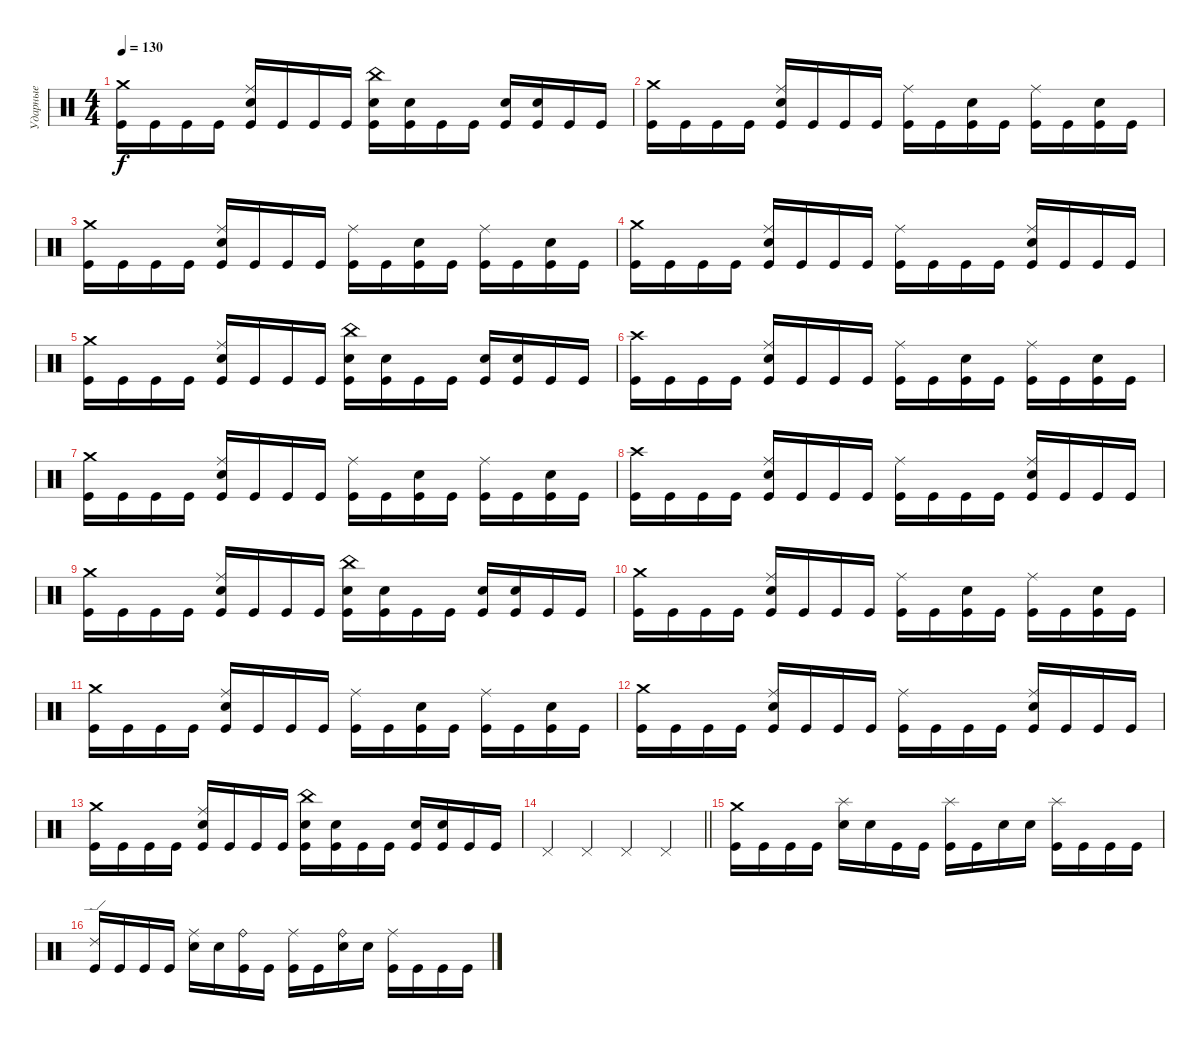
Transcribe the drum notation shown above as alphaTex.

\track ("Ударные" "Ударные") {instrument percussion}
\staff {score}
\articulation defaults
\ts (4 4)
\tempo 130
\clef neutral
\ks c
("Crash medium (hit)" "Kick (hit)").16{dy f} "Kick (hit)".16 "Kick (hit)".16 "Kick (hit)".16 ("Ride (middle)" "Electric Snare (hit)" "Kick (hit)").16 "Kick (hit)".16 "Kick (hit)".16 "Kick (hit)".16 ("China (hit)" "Electric Snare (hit)" "Kick (hit)").16 ("Electric Snare (hit)" "Kick (hit)").16 "Kick (hit)".16 "Kick (hit)".16 ("Electric Snare (hit)" "Kick (hit)").16 ("Electric Snare (hit)" "Kick (hit)").16 "Kick (hit)".16 "Kick (hit)".16 |
("Crash medium (hit)" "Kick (hit)").16 "Kick (hit)".16 "Kick (hit)".16 "Kick (hit)".16 ("Ride (middle)" "Electric Snare (hit)" "Kick (hit)").16 "Kick (hit)".16 "Kick (hit)".16 "Kick (hit)".16 ("Ride (middle)" "Kick (hit)").16 "Kick (hit)".16 ("Electric Snare (hit)" "Kick (hit)").16 "Kick (hit)".16 ("Ride (middle)" "Kick (hit)").16 "Kick (hit)".16 ("Electric Snare (hit)" "Kick (hit)").16 "Kick (hit)".16 |
("Crash medium (hit)" "Kick (hit)").16 "Kick (hit)".16 "Kick (hit)".16 "Kick (hit)".16 ("Ride (middle)" "Electric Snare (hit)" "Kick (hit)").16 "Kick (hit)".16 "Kick (hit)".16 "Kick (hit)".16 ("Ride (middle)" "Kick (hit)").16 "Kick (hit)".16 ("Electric Snare (hit)" "Kick (hit)").16 "Kick (hit)".16 ("Ride (middle)" "Kick (hit)").16 "Kick (hit)".16 ("Electric Snare (hit)" "Kick (hit)").16 "Kick (hit)".16 |
("Crash medium (hit)" "Kick (hit)").16 "Kick (hit)".16 "Kick (hit)".16 "Kick (hit)".16 ("Ride (middle)" "Electric Snare (hit)" "Kick (hit)").16 "Kick (hit)".16 "Kick (hit)".16 "Kick (hit)".16 ("Ride (middle)" "Kick (hit)").16 "Kick (hit)".16 "Kick (hit)".16 "Kick (hit)".16 ("Ride (middle)" "Electric Snare (hit)" "Kick (hit)").16 "Kick (hit)".16 "Kick (hit)".16 "Kick (hit)".16 |
("Crash medium (hit)" "Kick (hit)").16 "Kick (hit)".16 "Kick (hit)".16 "Kick (hit)".16 ("Ride (middle)" "Electric Snare (hit)" "Kick (hit)").16 "Kick (hit)".16 "Kick (hit)".16 "Kick (hit)".16 ("China (hit)" "Electric Snare (hit)" "Kick (hit)").16 ("Electric Snare (hit)" "Kick (hit)").16 "Kick (hit)".16 "Kick (hit)".16 ("Electric Snare (hit)" "Kick (hit)").16 ("Electric Snare (hit)" "Kick (hit)").16 "Kick (hit)".16 "Kick (hit)".16 |
("Crash high (hit)" "Kick (hit)").16 "Kick (hit)".16 "Kick (hit)".16 "Kick (hit)".16 ("Ride (middle)" "Electric Snare (hit)" "Kick (hit)").16 "Kick (hit)".16 "Kick (hit)".16 "Kick (hit)".16 ("Ride (middle)" "Kick (hit)").16 "Kick (hit)".16 ("Electric Snare (hit)" "Kick (hit)").16 "Kick (hit)".16 ("Ride (middle)" "Kick (hit)").16 "Kick (hit)".16 ("Electric Snare (hit)" "Kick (hit)").16 "Kick (hit)".16 |
("Crash medium (hit)" "Kick (hit)").16 "Kick (hit)".16 "Kick (hit)".16 "Kick (hit)".16 ("Ride (middle)" "Electric Snare (hit)" "Kick (hit)").16 "Kick (hit)".16 "Kick (hit)".16 "Kick (hit)".16 ("Ride (middle)" "Kick (hit)").16 "Kick (hit)".16 ("Electric Snare (hit)" "Kick (hit)").16 "Kick (hit)".16 ("Ride (middle)" "Kick (hit)").16 "Kick (hit)".16 ("Electric Snare (hit)" "Kick (hit)").16 "Kick (hit)".16 |
("Crash high (hit)" "Kick (hit)").16 "Kick (hit)".16 "Kick (hit)".16 "Kick (hit)".16 ("Ride (middle)" "Electric Snare (hit)" "Kick (hit)").16 "Kick (hit)".16 "Kick (hit)".16 "Kick (hit)".16 ("Ride (middle)" "Kick (hit)").16 "Kick (hit)".16 "Kick (hit)".16 "Kick (hit)".16 ("Ride (middle)" "Electric Snare (hit)" "Kick (hit)").16 "Kick (hit)".16 "Kick (hit)".16 "Kick (hit)".16 |
("Crash medium (hit)" "Kick (hit)").16 "Kick (hit)".16 "Kick (hit)".16 "Kick (hit)".16 ("Ride (middle)" "Electric Snare (hit)" "Kick (hit)").16 "Kick (hit)".16 "Kick (hit)".16 "Kick (hit)".16 ("China (hit)" "Electric Snare (hit)" "Kick (hit)").16 ("Electric Snare (hit)" "Kick (hit)").16 "Kick (hit)".16 "Kick (hit)".16 ("Electric Snare (hit)" "Kick (hit)").16 ("Electric Snare (hit)" "Kick (hit)").16 "Kick (hit)".16 "Kick (hit)".16 |
("Crash medium (hit)" "Kick (hit)").16 "Kick (hit)".16 "Kick (hit)".16 "Kick (hit)".16 ("Ride (middle)" "Electric Snare (hit)" "Kick (hit)").16 "Kick (hit)".16 "Kick (hit)".16 "Kick (hit)".16 ("Ride (middle)" "Kick (hit)").16 "Kick (hit)".16 ("Electric Snare (hit)" "Kick (hit)").16 "Kick (hit)".16 ("Ride (middle)" "Kick (hit)").16 "Kick (hit)".16 ("Electric Snare (hit)" "Kick (hit)").16 "Kick (hit)".16 |
("Crash medium (hit)" "Kick (hit)").16 "Kick (hit)".16 "Kick (hit)".16 "Kick (hit)".16 ("Ride (middle)" "Electric Snare (hit)" "Kick (hit)").16 "Kick (hit)".16 "Kick (hit)".16 "Kick (hit)".16 ("Ride (middle)" "Kick (hit)").16 "Kick (hit)".16 ("Electric Snare (hit)" "Kick (hit)").16 "Kick (hit)".16 ("Ride (middle)" "Kick (hit)").16 "Kick (hit)".16 ("Electric Snare (hit)" "Kick (hit)").16 "Kick (hit)".16 |
("Crash medium (hit)" "Kick (hit)").16 "Kick (hit)".16 "Kick (hit)".16 "Kick (hit)".16 ("Ride (middle)" "Electric Snare (hit)" "Kick (hit)").16 "Kick (hit)".16 "Kick (hit)".16 "Kick (hit)".16 ("Ride (middle)" "Kick (hit)").16 "Kick (hit)".16 "Kick (hit)".16 "Kick (hit)".16 ("Ride (middle)" "Electric Snare (hit)" "Kick (hit)").16 "Kick (hit)".16 "Kick (hit)".16 "Kick (hit)".16 |
("Crash medium (hit)" "Kick (hit)").16 "Kick (hit)".16 "Kick (hit)".16 "Kick (hit)".16 ("Ride (middle)" "Electric Snare (hit)" "Kick (hit)").16 "Kick (hit)".16 "Kick (hit)".16 "Kick (hit)".16 ("China (hit)" "Electric Snare (hit)" "Kick (hit)").16 ("Electric Snare (hit)" "Kick (hit)").16 "Kick (hit)".16 "Kick (hit)".16 ("Electric Snare (hit)" "Kick (hit)").16 ("Electric Snare (hit)" "Kick (hit)").16 "Kick (hit)".16 "Kick (hit)".16 |
\barLineRight lightlight "Pedal Hi-Hat (hit)".4 "Pedal Hi-Hat (hit)".4 "Pedal Hi-Hat (hit)".4 "Pedal Hi-Hat (hit)".4
|
\section ("" " ")
("Crash medium (hit)" "Kick (hit)").16 "Kick (hit)".16 "Kick (hit)".16 "Kick (hit)".16 ("Splash (hit)" "Electric Snare (hit)").16 "Electric Snare (hit)".16 "Kick (hit)".16 "Kick (hit)".16 ("Splash (hit)" "Kick (hit)").16 "Kick (hit)".16 "Electric Snare (hit)".16 "Electric Snare (hit)".16 ("Splash (hit)" "Kick (hit)").16 "Kick (hit)".16 "Kick (hit)".16 "Kick (hit)".16 |
("Ride (edge) 2" "Kick (hit)").16 "Kick (hit)".16 "Kick (hit)".16 "Kick (hit)".16 ("Ride (middle)" "Electric Snare (hit)").16 "Electric Snare (hit)".16 ("Ride (bell)" "Kick (hit)").16 "Kick (hit)".16 ("Ride (middle)" "Kick (hit)").16 "Kick (hit)".16 ("Ride (bell)" "Electric Snare (hit)").16 "Electric Snare (hit)".16 ("Ride (middle)" "Kick (hit)").16 "Kick (hit)".16 "Kick (hit)".16 "Kick (hit)".16
